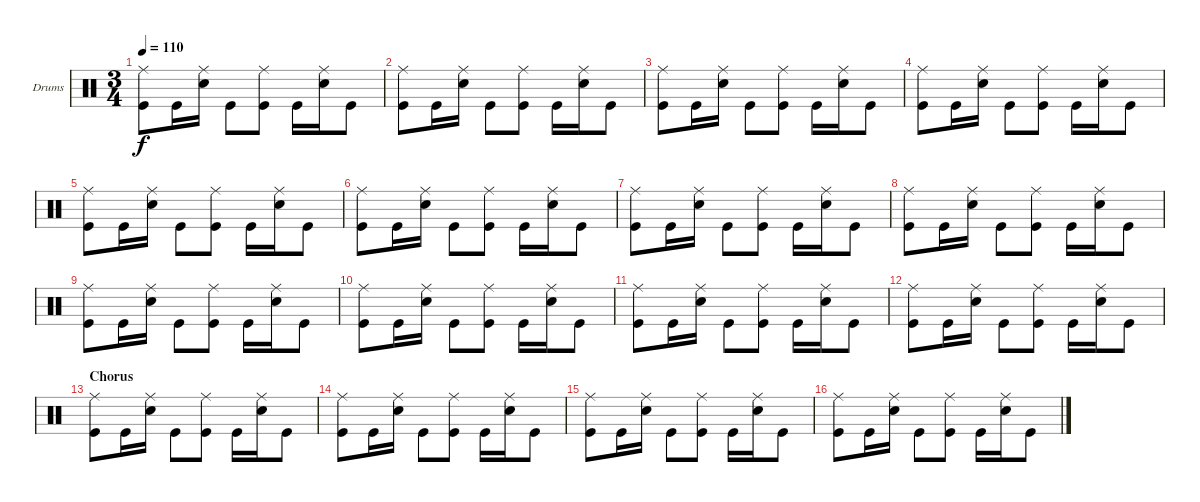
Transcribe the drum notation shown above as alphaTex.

\defaultSystemsLayout 4
\bracketExtendMode nobrackets
\firstSystemTrackNameOrientation horizontal
\otherSystemsTrackNameOrientation horizontal
\track ("Drumkit" "Drums") {instrument percussion}
\staff {score}
\articulation defaults
\ts (3 4)
\tempo 110
\clef neutral
\ks c
("Ride (middle)" "Kick (hit)").8{dy f} "Kick (hit)".16 ("Ride (middle)" "Snare (hit) 2").16 "Kick (hit)".8 ("Ride (middle)" "Kick (hit)").8 "Kick (hit)".16 ("Ride (middle)" "Snare (hit) 2").16 "Kick (hit)".8 |
("Ride (middle)" "Kick (hit)").8 "Kick (hit)".16 ("Ride (middle)" "Snare (hit) 2").16 "Kick (hit)".8 ("Ride (middle)" "Kick (hit)").8 "Kick (hit)".16 ("Ride (middle)" "Snare (hit) 2").16 "Kick (hit)".8 |
("Ride (middle)" "Kick (hit)").8 "Kick (hit)".16 ("Ride (middle)" "Snare (hit) 2").16 "Kick (hit)".8 ("Ride (middle)" "Kick (hit)").8 "Kick (hit)".16 ("Ride (middle)" "Snare (hit) 2").16 "Kick (hit)".8 |
("Ride (middle)" "Kick (hit)").8 "Kick (hit)".16 ("Ride (middle)" "Snare (hit) 2").16 "Kick (hit)".8 ("Ride (middle)" "Kick (hit)").8 "Kick (hit)".16 ("Ride (middle)" "Snare (hit) 2").16 "Kick (hit)".8 |
("Ride (middle)" "Kick (hit)").8 "Kick (hit)".16 ("Ride (middle)" "Snare (hit) 2").16 "Kick (hit)".8 ("Ride (middle)" "Kick (hit)").8 "Kick (hit)".16 ("Ride (middle)" "Snare (hit) 2").16 "Kick (hit)".8 |
("Ride (middle)" "Kick (hit)").8 "Kick (hit)".16 ("Ride (middle)" "Snare (hit) 2").16 "Kick (hit)".8 ("Ride (middle)" "Kick (hit)").8 "Kick (hit)".16 ("Ride (middle)" "Snare (hit) 2").16 "Kick (hit)".8 |
("Ride (middle)" "Kick (hit)").8 "Kick (hit)".16 ("Ride (middle)" "Snare (hit) 2").16 "Kick (hit)".8 ("Ride (middle)" "Kick (hit)").8 "Kick (hit)".16 ("Ride (middle)" "Snare (hit) 2").16 "Kick (hit)".8 |
("Ride (middle)" "Kick (hit)").8 "Kick (hit)".16 ("Ride (middle)" "Snare (hit) 2").16 "Kick (hit)".8 ("Ride (middle)" "Kick (hit)").8 "Kick (hit)".16 ("Ride (middle)" "Snare (hit) 2").16 "Kick (hit)".8 |
("Ride (middle)" "Kick (hit)").8 "Kick (hit)".16 ("Ride (middle)" "Snare (hit) 2").16 "Kick (hit)".8 ("Ride (middle)" "Kick (hit)").8 "Kick (hit)".16 ("Ride (middle)" "Snare (hit) 2").16 "Kick (hit)".8 |
("Ride (middle)" "Kick (hit)").8 "Kick (hit)".16 ("Ride (middle)" "Snare (hit) 2").16 "Kick (hit)".8 ("Ride (middle)" "Kick (hit)").8 "Kick (hit)".16 ("Ride (middle)" "Snare (hit) 2").16 "Kick (hit)".8 |
("Ride (middle)" "Kick (hit)").8 "Kick (hit)".16 ("Ride (middle)" "Snare (hit) 2").16 "Kick (hit)".8 ("Ride (middle)" "Kick (hit)").8 "Kick (hit)".16 ("Ride (middle)" "Snare (hit) 2").16 "Kick (hit)".8 |
("Ride (middle)" "Kick (hit)").8 "Kick (hit)".16 ("Ride (middle)" "Snare (hit) 2").16 "Kick (hit)".8 ("Ride (middle)" "Kick (hit)").8 "Kick (hit)".16 ("Ride (middle)" "Snare (hit) 2").16 "Kick (hit)".8 |
\section ("" "Chorus")
("Ride (middle)" "Kick (hit)").8 "Kick (hit)".16 ("Ride (middle)" "Snare (hit) 2").16 "Kick (hit)".8 ("Ride (middle)" "Kick (hit)").8 "Kick (hit)".16 ("Ride (middle)" "Snare (hit) 2").16 "Kick (hit)".8 |
("Ride (middle)" "Kick (hit)").8 "Kick (hit)".16 ("Ride (middle)" "Snare (hit) 2").16 "Kick (hit)".8 ("Ride (middle)" "Kick (hit)").8 "Kick (hit)".16 ("Ride (middle)" "Snare (hit) 2").16 "Kick (hit)".8 |
("Ride (middle)" "Kick (hit)").8 "Kick (hit)".16 ("Ride (middle)" "Snare (hit) 2").16 "Kick (hit)".8 ("Ride (middle)" "Kick (hit)").8 "Kick (hit)".16 ("Ride (middle)" "Snare (hit) 2").16 "Kick (hit)".8 |
("Ride (middle)" "Kick (hit)").8 "Kick (hit)".16 ("Ride (middle)" "Snare (hit) 2").16 "Kick (hit)".8 ("Ride (middle)" "Kick (hit)").8 "Kick (hit)".16 ("Ride (middle)" "Snare (hit) 2").16 "Kick (hit)".8
